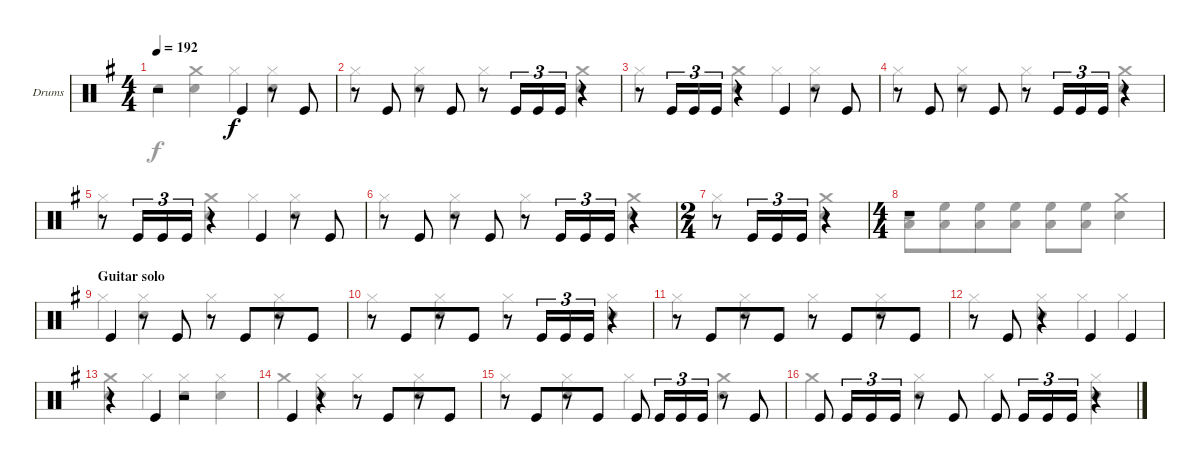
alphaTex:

\bracketExtendMode groupsimilarinstruments
\firstSystemTrackNameOrientation horizontal
\otherSystemsTrackNameOrientation horizontal
\track ("Drumkit" "Drums") {instrument percussion}
\staff {score}
\articulation defaults
\voice
\ts (4 4)
\tempo 192
\clef neutral
\scale
1.04288
\ks g
r.2{dy f} "Kick (hit)".4 r.8 "Kick (hit)".8 |
\scale
0.957125 r.8 "Kick (hit)".8 r.8 "Kick (hit)".8 r.8 "Kick (hit)".16{tu (3 2)} "Kick (hit)".16{tu (3 2)} "Kick (hit)".16{tu (3 2)} r.4 |
\scale
1.04288 r.8 "Kick (hit)".16{tu (3 2)} "Kick (hit)".16{tu (3 2)} "Kick (hit)".16{tu (3 2)} r.4 "Kick (hit)".4 r.8 "Kick (hit)".8 |
\scale
0.957125 r.8 "Kick (hit)".8 r.8 "Kick (hit)".8 r.8 "Kick (hit)".16{tu (3 2)} "Kick (hit)".16{tu (3 2)} "Kick (hit)".16{tu (3 2)} r.4 |
\scale
1.04288 r.8 "Kick (hit)".16{tu (3 2)} "Kick (hit)".16{tu (3 2)} "Kick (hit)".16{tu (3 2)} r.4 "Kick (hit)".4 r.8 "Kick (hit)".8 |
\scale
0.957125 r.8 "Kick (hit)".8 r.8 "Kick (hit)".8 r.8 "Kick (hit)".16{tu (3 2)} "Kick (hit)".16{tu (3 2)} "Kick (hit)".16{tu (3 2)} r.4 |
\ts (2 4)
\beaming (8 4 4)
\scale
1.07314 r.8 "Kick (hit)".16{tu (3 2)} "Kick (hit)".16{tu (3 2)} "Kick (hit)".16{tu (3 2)} r.4 |
\ts (4 4)
\beaming (8 4 4)
\scale
0.92686 r.1 |
\section ("" "Guitar solo")
\scale
1.04288 "Kick (hit)".4 r.8 "Kick (hit)".8 r.8 "Kick (hit)".8 r.8 "Kick (hit)".8 |
\scale
0.957125 r.8 "Kick (hit)".8 r.8 "Kick (hit)".8 r.8 "Kick (hit)".16{tu (3 2)} "Kick (hit)".16{tu (3 2)} "Kick (hit)".16{tu (3 2)} r.4 |
\scale
1.04288 r.8 "Kick (hit)".8 r.8 "Kick (hit)".8 r.8 "Kick (hit)".8 r.8 "Kick (hit)".8 |
\scale
0.957125 r.8 "Kick (hit)".8 r.4 "Kick (hit)".4 "Kick (hit)".4 |
\scale
1.04288 r.4 "Kick (hit)".4 r.2 |
\scale
0.957125 "Kick (hit)".4 r.4 r.8 "Kick (hit)".8 r.8 "Kick (hit)".8 |
\scale
1.04288 r.8 "Kick (hit)".8 r.8 "Kick (hit)".8 "Kick (hit)".8 "Kick (hit)".16{tu (3 2)} "Kick (hit)".16{tu (3 2)} "Kick (hit)".16{tu (3 2)} r.8 "Kick (hit)".8 |
\scale
0.957125 "Kick (hit)".8 "Kick (hit)".16{tu (3 2)} "Kick (hit)".16{tu (3 2)} "Kick (hit)".16{tu (3 2)} r.8 "Kick (hit)".8 "Kick (hit)".8 "Kick (hit)".16{tu (3 2)} "Kick (hit)".16{tu (3 2)} "Kick (hit)".16{tu (3 2)} r.4
\voice
\clef neutral
\ottava regular
\simile none
\scale
1.04288
\ks g "Snare (hit) 2".4{dy f}
("Crash medium (hit)" "Snare (hit) 2").4 "Hi-Hat (closed)".4 ("Hi-Hat (closed)" "Snare (hit) 2").4 |
\scale
0.957125 "Hi-Hat (closed)".4 ("Hi-Hat (closed)" "Snare (hit) 2").4 "Hi-Hat (closed)".4 ("Crash medium (hit)" "Snare (hit) 2").4 |
\scale
1.04288 "Hi-Hat (closed)".4 ("Crash medium (hit)" "Snare (hit) 2").4 "Hi-Hat (closed)".4 ("Hi-Hat (closed)" "Snare (hit) 2").4 |
\scale
0.957125 "Hi-Hat (closed)".4 ("Hi-Hat (closed)" "Snare (hit) 2").4 "Hi-Hat (closed)".4 ("Crash medium (hit)" "Snare (hit) 2").4 |
\scale
1.04288 "Hi-Hat (closed)".4 ("Crash medium (hit)" "Snare (hit) 2").4 "Hi-Hat (closed)".4 ("Hi-Hat (closed)" "Snare (hit) 2").4 |
\scale
0.957125 "Hi-Hat (closed)".4 ("Hi-Hat (closed)" "Snare (hit) 2").4 "Hi-Hat (closed)".4 ("Crash medium (hit)" "Snare (hit) 2").4 |
\scale
1.07314 "Hi-Hat (closed)".4 ("Crash medium (hit)" "Snare (hit) 2").4 |
\scale
0.92686 ("Snare (hit) 2" "Low Tom (hit)").8 ("High Floor Tom (hit)" "Low Tom (hit)").8 ("High Floor Tom (hit)" "Low Tom (hit)").8 ("High Floor Tom (hit)" "Low Tom (hit)").8 ("High Floor Tom (hit)" "Low Tom (hit)").8 ("High Floor Tom (hit)" "Low Tom (hit)").8 ("Crash medium (hit)" "Snare (hit) 2").4 |
\scale
1.04288 "Hi-Hat (closed)".4 ("Hi-Hat (closed)" "Snare (hit) 2").4 "Hi-Hat (closed)".4 ("Hi-Hat (closed)" "Snare (hit) 2").4 |
\scale
0.957125 "Hi-Hat (closed)".4 ("Hi-Hat (closed)" "Snare (hit) 2").4 "Hi-Hat (closed)".4 ("Hi-Hat (closed)" "Snare (hit) 2").4 |
\scale
1.04288 "Hi-Hat (closed)".4 ("Hi-Hat (closed)" "Snare (hit) 2").4 "Hi-Hat (closed)".4 ("Hi-Hat (closed)" "Snare (hit) 2").4 |
\scale
0.957125 "Hi-Hat (closed)".4 ("Hi-Hat (closed)" "Snare (hit) 2").4 "Hi-Hat (closed)".4 "Hi-Hat (closed)".4 |
\scale
1.04288 ("Crash medium (hit)" "Snare (hit) 2").4 "Hi-Hat (closed)".4 ("Hi-Hat (closed)" "Snare (hit) 2").4 ("Hi-Hat (closed)" "Snare (hit) 2").4 |
\scale
0.957125 "Crash medium (hit)".4 ("Hi-Hat (closed)" "Snare (hit) 2").4 "Hi-Hat (closed)".4 ("Hi-Hat (closed)" "Snare (hit) 2").4 |
\scale
1.04288 "Hi-Hat (closed)".4 ("Hi-Hat (closed)" "Snare (hit) 2").4 "Hi-Hat (closed)".4 ("Crash medium (hit)" "Snare (hit) 2").4 |
\scale
0.957125 "Crash medium (hit)".4 ("Hi-Hat (closed)" "Snare (hit) 2").4 "Hi-Hat (closed)".4 ("Hi-Hat (closed)" "Snare (hit) 2").4
